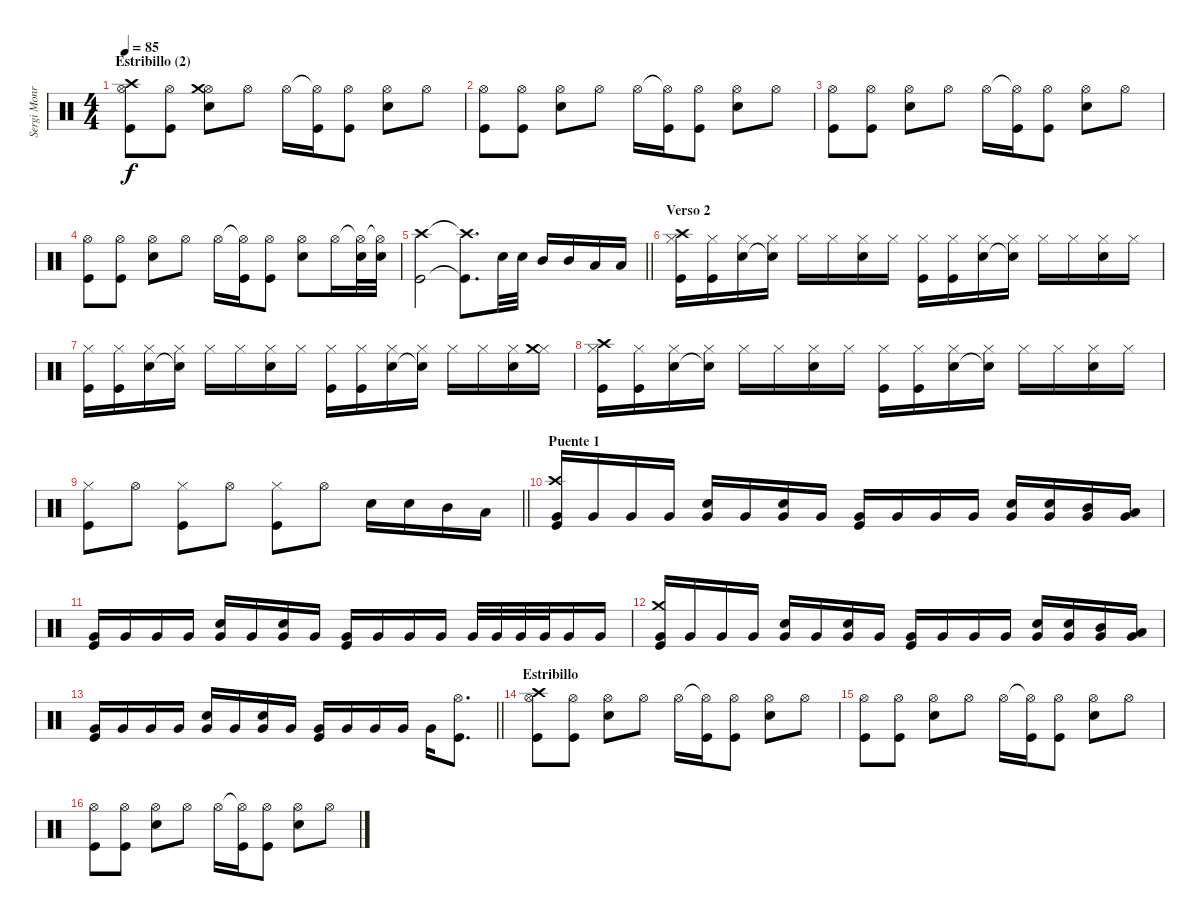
\track ("Sergi Monroy" "Sergi Monr") {instrument percussion}
\staff {score}
\articulation defaults
\ts (4 4)
\section ("" "Estribillo (2)")
\tempo 85
\clef neutral
\ks c
("Hi-Hat (open)" "Kick (hit)" "Crash high (hit)").8{dy f} ("Hi-Hat (open)" "Kick (hit)").8 ("Hi-Hat (open)" "Electric Snare (hit)" "Crash medium (hit)").8 "Hi-Hat (open)".8 "Hi-Hat (open)".16 ("Hi-Hat (open)"{t} "Kick (hit)").16 ("Hi-Hat (open)" "Kick (hit)").8 ("Hi-Hat (open)" "Electric Snare (hit)").8 "Hi-Hat (open)".8 |
("Hi-Hat (open)" "Kick (hit)").8 ("Hi-Hat (open)" "Kick (hit)").8 ("Hi-Hat (open)" "Electric Snare (hit)").8 "Hi-Hat (open)".8 "Hi-Hat (open)".16 ("Hi-Hat (open)"{t} "Kick (hit)").16 ("Hi-Hat (open)" "Kick (hit)").8 ("Hi-Hat (open)" "Electric Snare (hit)").8 "Hi-Hat (open)".8 |
("Hi-Hat (open)" "Kick (hit)").8 ("Hi-Hat (open)" "Kick (hit)").8 ("Hi-Hat (open)" "Electric Snare (hit)").8 "Hi-Hat (open)".8 "Hi-Hat (open)".16 ("Hi-Hat (open)"{t} "Kick (hit)").16 ("Hi-Hat (open)" "Kick (hit)").8 ("Hi-Hat (open)" "Electric Snare (hit)").8 "Hi-Hat (open)".8 |
("Hi-Hat (open)" "Kick (hit)").8 ("Hi-Hat (open)" "Kick (hit)").8 ("Hi-Hat (open)" "Electric Snare (hit)").8 "Hi-Hat (open)".8 "Hi-Hat (open)".16 ("Hi-Hat (open)"{t} "Kick (hit)").16 ("Hi-Hat (open)" "Kick (hit)").8 ("Hi-Hat (open)" "Electric Snare (hit)").8 "Hi-Hat (open)".16 ("Hi-Hat (open)"{t} "Electric Snare (hit)").32 ("Hi-Hat (open)"{t} "Electric Snare (hit)").32 |
\barLineRight lightlight
("Kick (hit)" "Crash high (hit)").2 ("Kick (hit)"{t} "Crash high (hit)"{t}).8{d} "Electric Snare (hit)".32 "Electric Snare (hit)".32 "Mid Tom (hit)".16 "Mid Tom (hit)".16 "Low Tom (hit)".16 "Low Tom (hit)".16 |
\section ("" "Verso 2")
("Hi-Hat (closed)" "Kick (hit)" "Crash high (hit)").16 ("Hi-Hat (closed)" "Kick (hit)").16 ("Hi-Hat (closed)" "Electric Snare (hit)").16 ("Hi-Hat (closed)" "Electric Snare (hit)"{t}).16 "Hi-Hat (closed)".16 "Hi-Hat (closed)".16 ("Hi-Hat (closed)" "Electric Snare (hit)").16 "Hi-Hat (closed)".16 ("Hi-Hat (closed)" "Kick (hit)").16 ("Hi-Hat (closed)" "Kick (hit)").16 ("Hi-Hat (closed)" "Electric Snare (hit)").16 ("Hi-Hat (closed)" "Electric Snare (hit)"{t}).16 "Hi-Hat (closed)".16 "Hi-Hat (closed)".16 ("Hi-Hat (closed)" "Electric Snare (hit)").16 "Hi-Hat (closed)".16 |
("Hi-Hat (closed)" "Kick (hit)").16 ("Hi-Hat (closed)" "Kick (hit)").16 ("Hi-Hat (closed)" "Electric Snare (hit)").16 ("Hi-Hat (closed)" "Electric Snare (hit)"{t}).16 "Hi-Hat (closed)".16 "Hi-Hat (closed)".16 ("Hi-Hat (closed)" "Electric Snare (hit)").16 "Hi-Hat (closed)".16 ("Hi-Hat (closed)" "Kick (hit)").16 ("Hi-Hat (closed)" "Kick (hit)").16 ("Hi-Hat (closed)" "Electric Snare (hit)").16 ("Hi-Hat (closed)" "Electric Snare (hit)"{t}).16 "Hi-Hat (closed)".16 "Hi-Hat (closed)".16 ("Hi-Hat (closed)" "Electric Snare (hit)").16 ("Hi-Hat (closed)" "Crash medium (hit)").16 |
("Hi-Hat (closed)" "Kick (hit)" "Crash high (hit)").16 ("Hi-Hat (closed)" "Kick (hit)").16 ("Hi-Hat (closed)" "Electric Snare (hit)").16 ("Hi-Hat (closed)" "Electric Snare (hit)"{t}).16 "Hi-Hat (closed)".16 "Hi-Hat (closed)".16 ("Hi-Hat (closed)" "Electric Snare (hit)").16 "Hi-Hat (closed)".16 ("Hi-Hat (closed)" "Kick (hit)").16 ("Hi-Hat (closed)" "Kick (hit)").16 ("Hi-Hat (closed)" "Electric Snare (hit)").16 ("Hi-Hat (closed)" "Electric Snare (hit)"{t}).16 "Hi-Hat (closed)".16 "Hi-Hat (closed)".16 ("Hi-Hat (closed)" "Electric Snare (hit)").16 "Hi-Hat (closed)".16 |
\barLineRight lightlight
("Hi-Hat (closed)" "Kick (hit)").8 "Hi-Hat (open)".8 ("Hi-Hat (closed)" "Kick (hit)").8 "Hi-Hat (open)".8 ("Hi-Hat (closed)" "Kick (hit)").8 "Hi-Hat (open)".8 "Electric Snare (hit)".16 "Electric Snare (hit)".16 "Mid Tom (hit)".16 "Low Tom (hit)".16 |
\section ("" "Puente 1")
("Very Low Tom (hit)" "Kick (hit)" "Crash high (hit)").16 "Very Low Tom (hit)".16 "Very Low Tom (hit)".16 "Very Low Tom (hit)".16 ("Very Low Tom (hit)" "Electric Snare (hit)").16 "Very Low Tom (hit)".16 ("Very Low Tom (hit)" "Electric Snare (hit)").16 "Very Low Tom (hit)".16 ("Very Low Tom (hit)" "Kick (hit)").16 "Very Low Tom (hit)".16 "Very Low Tom (hit)".16 "Very Low Tom (hit)".16 ("Very Low Tom (hit)" "Electric Snare (hit)").16 ("Very Low Tom (hit)" "Electric Snare (hit)").16 ("Very Low Tom (hit)" "Mid Tom (hit)").16 ("Very Low Tom (hit)" "Low Tom (hit)").16 |
("Very Low Tom (hit)" "Kick (hit)").16 "Very Low Tom (hit)".16 "Very Low Tom (hit)".16 "Very Low Tom (hit)".16 ("Very Low Tom (hit)" "Electric Snare (hit)").16 "Very Low Tom (hit)".16 ("Very Low Tom (hit)" "Electric Snare (hit)").16 "Very Low Tom (hit)".16 ("Very Low Tom (hit)" "Kick (hit)").16 "Very Low Tom (hit)".16 "Very Low Tom (hit)".16 "Very Low Tom (hit)".16 "Very Low Tom (hit)".32 "Very Low Tom (hit)".32 "Very Low Tom (hit)".32 "Very Low Tom (hit)".32 "Very Low Tom (hit)".16 "Very Low Tom (hit)".16 |
("Very Low Tom (hit)" "Kick (hit)" "Crash medium (hit)").16 "Very Low Tom (hit)".16 "Very Low Tom (hit)".16 "Very Low Tom (hit)".16 ("Very Low Tom (hit)" "Electric Snare (hit)").16 "Very Low Tom (hit)".16 ("Very Low Tom (hit)" "Electric Snare (hit)").16 "Very Low Tom (hit)".16 ("Very Low Tom (hit)" "Kick (hit)").16 "Very Low Tom (hit)".16 "Very Low Tom (hit)".16 "Very Low Tom (hit)".16 ("Very Low Tom (hit)" "Electric Snare (hit)").16 ("Very Low Tom (hit)" "Electric Snare (hit)").16 ("Very Low Tom (hit)" "Mid Tom (hit)").16 ("Very Low Tom (hit)" "Low Tom (hit)").16 |
\barLineRight lightlight
("Very Low Tom (hit)" "Kick (hit)").16 "Very Low Tom (hit)".16 "Very Low Tom (hit)".16 "Very Low Tom (hit)".16 ("Very Low Tom (hit)" "Electric Snare (hit)").16 "Very Low Tom (hit)".16 ("Very Low Tom (hit)" "Electric Snare (hit)").16 "Very Low Tom (hit)".16 ("Very Low Tom (hit)" "Kick (hit)").16 "Very Low Tom (hit)".16 "Very Low Tom (hit)".16 "Very Low Tom (hit)".16 "Very Low Tom (hit)".16 ("Hi-Hat (open)" "Kick (hit)").8{d} |
\section ("" "Estribillo")
("Hi-Hat (open)" "Kick (hit)" "Crash high (hit)").8 ("Hi-Hat (open)" "Kick (hit)").8 ("Hi-Hat (open)" "Electric Snare (hit)").8 "Hi-Hat (open)".8 "Hi-Hat (open)".16 ("Hi-Hat (open)"{t} "Kick (hit)").16 ("Hi-Hat (open)" "Kick (hit)").8 ("Hi-Hat (open)" "Electric Snare (hit)").8 "Hi-Hat (open)".8 |
("Hi-Hat (open)" "Kick (hit)").8 ("Hi-Hat (open)" "Kick (hit)").8 ("Hi-Hat (open)" "Electric Snare (hit)").8 "Hi-Hat (open)".8 "Hi-Hat (open)".16 ("Hi-Hat (open)"{t} "Kick (hit)").16 ("Hi-Hat (open)" "Kick (hit)").8 ("Hi-Hat (open)" "Electric Snare (hit)").8 "Hi-Hat (open)".8 |
("Hi-Hat (open)" "Kick (hit)").8 ("Hi-Hat (open)" "Kick (hit)").8 ("Hi-Hat (open)" "Electric Snare (hit)").8 "Hi-Hat (open)".8 "Hi-Hat (open)".16 ("Hi-Hat (open)"{t} "Kick (hit)").16 ("Hi-Hat (open)" "Kick (hit)").8 ("Hi-Hat (open)" "Electric Snare (hit)").8 "Hi-Hat (open)".8
